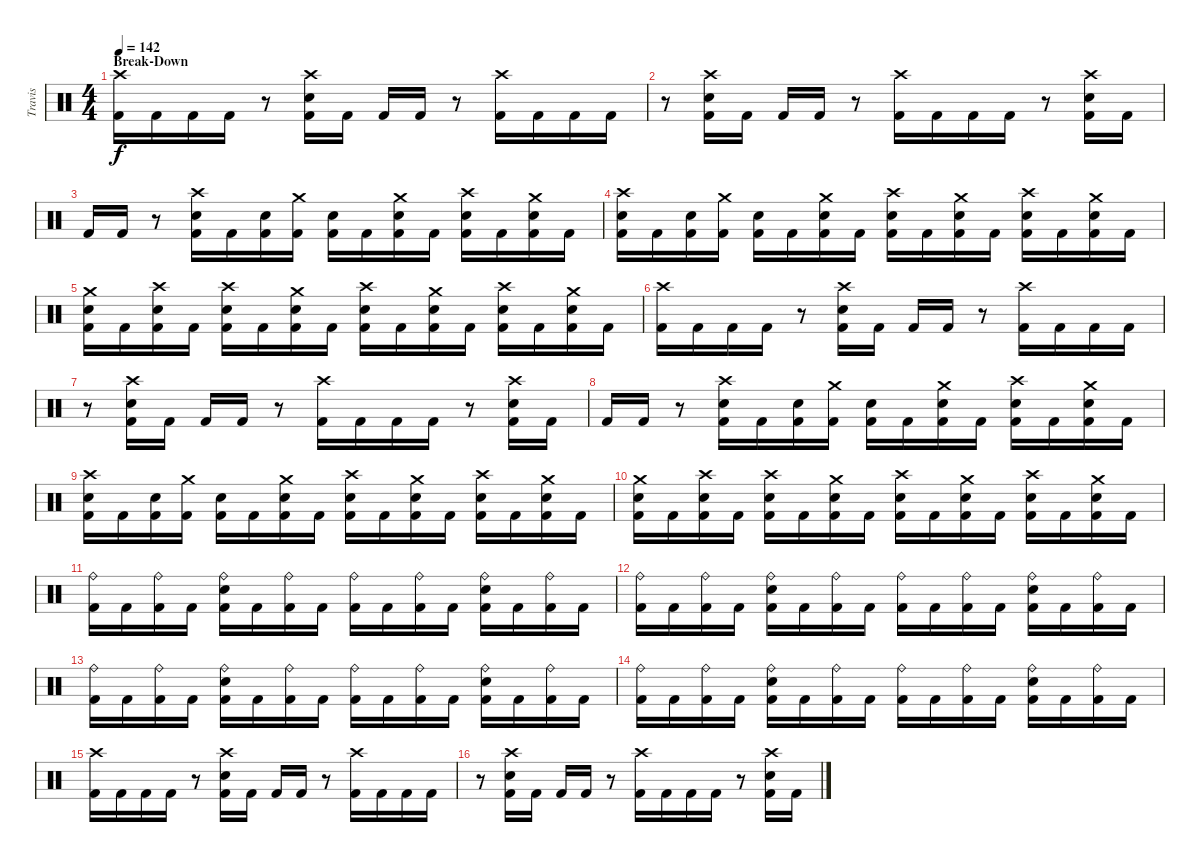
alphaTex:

\track ("Travis" "Travis") {instrument percussion}
\staff {score}
\articulation defaults
\ts (4 4)
\section ("" "Break-Down")
\tempo 142
\clef neutral
\ks c
("Crash high (hit)" "Kick (hit) 2").16{dy f} "Kick (hit) 2".16 "Kick (hit) 2".16 "Kick (hit) 2".16 r.8 ("Crash high (hit)" "Snare (hit) 2" "Kick (hit) 2").16 "Kick (hit) 2".16 "Kick (hit) 2".16 "Kick (hit) 2".16 r.8 ("Crash high (hit)" "Kick (hit) 2").16 "Kick (hit) 2".16 "Kick (hit) 2".16 "Kick (hit) 2".16 |
r.8 ("Crash high (hit)" "Snare (hit) 2" "Kick (hit) 2").16 "Kick (hit) 2".16 "Kick (hit) 2".16 "Kick (hit) 2".16 r.8 ("Crash high (hit)" "Kick (hit) 2").16 "Kick (hit) 2".16 "Kick (hit) 2".16 "Kick (hit) 2".16 r.8 ("Crash high (hit)" "Snare (hit) 2" "Kick (hit) 2").16 "Kick (hit) 2".16 |
"Kick (hit) 2".16 "Kick (hit) 2".16 r.8 ("Crash high (hit)" "Snare (hit) 2" "Kick (hit) 2").16 "Kick (hit) 2".16 ("Snare (hit) 2" "Kick (hit) 2").16 ("Crash medium (hit)" "Kick (hit) 2").16 ("Snare (hit) 2" "Kick (hit) 2").16 "Kick (hit) 2".16 ("Crash medium (hit)" "Snare (hit) 2" "Kick (hit) 2").16 "Kick (hit) 2".16 ("Crash high (hit)" "Snare (hit) 2" "Kick (hit) 2").16 "Kick (hit) 2".16 ("Crash medium (hit)" "Snare (hit) 2" "Kick (hit) 2").16 "Kick (hit) 2".16 |
("Crash high (hit)" "Snare (hit) 2" "Kick (hit) 2").16 "Kick (hit) 2".16 ("Snare (hit) 2" "Kick (hit) 2").16 ("Crash medium (hit)" "Kick (hit) 2").16 ("Snare (hit) 2" "Kick (hit) 2").16 "Kick (hit) 2".16 ("Crash medium (hit)" "Snare (hit) 2" "Kick (hit) 2").16 "Kick (hit) 2".16 ("Crash high (hit)" "Snare (hit) 2" "Kick (hit) 2").16 "Kick (hit) 2".16 ("Crash medium (hit)" "Snare (hit) 2" "Kick (hit) 2").16 "Kick (hit) 2".16 ("Crash high (hit)" "Snare (hit) 2" "Kick (hit) 2").16 "Kick (hit) 2".16 ("Crash medium (hit)" "Snare (hit) 2" "Kick (hit) 2").16 "Kick (hit) 2".16 |
("Crash medium (hit)" "Snare (hit) 2" "Kick (hit) 2").16 "Kick (hit) 2".16 ("Crash high (hit)" "Snare (hit) 2" "Kick (hit) 2").16 "Kick (hit) 2".16 ("Crash high (hit)" "Snare (hit) 2" "Kick (hit) 2").16 "Kick (hit) 2".16 ("Crash medium (hit)" "Snare (hit) 2" "Kick (hit) 2").16 "Kick (hit) 2".16 ("Crash high (hit)" "Snare (hit) 2" "Kick (hit) 2").16 "Kick (hit) 2".16 ("Crash medium (hit)" "Snare (hit) 2" "Kick (hit) 2").16 "Kick (hit) 2".16 ("Crash high (hit)" "Snare (hit) 2" "Kick (hit) 2").16 "Kick (hit) 2".16 ("Crash medium (hit)" "Snare (hit) 2" "Kick (hit) 2").16 "Kick (hit) 2".16 |
("Crash high (hit)" "Kick (hit) 2").16 "Kick (hit) 2".16 "Kick (hit) 2".16 "Kick (hit) 2".16 r.8 ("Crash high (hit)" "Snare (hit) 2" "Kick (hit) 2").16 "Kick (hit) 2".16 "Kick (hit) 2".16 "Kick (hit) 2".16 r.8 ("Crash high (hit)" "Kick (hit) 2").16 "Kick (hit) 2".16 "Kick (hit) 2".16 "Kick (hit) 2".16 |
r.8 ("Crash high (hit)" "Snare (hit) 2" "Kick (hit) 2").16 "Kick (hit) 2".16 "Kick (hit) 2".16 "Kick (hit) 2".16 r.8 ("Crash high (hit)" "Kick (hit) 2").16 "Kick (hit) 2".16 "Kick (hit) 2".16 "Kick (hit) 2".16 r.8 ("Crash high (hit)" "Snare (hit) 2" "Kick (hit) 2").16 "Kick (hit) 2".16 |
"Kick (hit) 2".16 "Kick (hit) 2".16 r.8 ("Crash high (hit)" "Snare (hit) 2" "Kick (hit) 2").16 "Kick (hit) 2".16 ("Snare (hit) 2" "Kick (hit) 2").16 ("Crash medium (hit)" "Kick (hit) 2").16 ("Snare (hit) 2" "Kick (hit) 2").16 "Kick (hit) 2".16 ("Crash medium (hit)" "Snare (hit) 2" "Kick (hit) 2").16 "Kick (hit) 2".16 ("Crash high (hit)" "Snare (hit) 2" "Kick (hit) 2").16 "Kick (hit) 2".16 ("Crash medium (hit)" "Snare (hit) 2" "Kick (hit) 2").16 "Kick (hit) 2".16 |
("Crash high (hit)" "Snare (hit) 2" "Kick (hit) 2").16 "Kick (hit) 2".16 ("Snare (hit) 2" "Kick (hit) 2").16 ("Crash medium (hit)" "Kick (hit) 2").16 ("Snare (hit) 2" "Kick (hit) 2").16 "Kick (hit) 2".16 ("Crash medium (hit)" "Snare (hit) 2" "Kick (hit) 2").16 "Kick (hit) 2".16 ("Crash high (hit)" "Snare (hit) 2" "Kick (hit) 2").16 "Kick (hit) 2".16 ("Crash medium (hit)" "Snare (hit) 2" "Kick (hit) 2").16 "Kick (hit) 2".16 ("Crash high (hit)" "Snare (hit) 2" "Kick (hit) 2").16 "Kick (hit) 2".16 ("Crash medium (hit)" "Snare (hit) 2" "Kick (hit) 2").16 "Kick (hit) 2".16 |
("Crash medium (hit)" "Snare (hit) 2" "Kick (hit) 2").16 "Kick (hit) 2".16 ("Crash high (hit)" "Snare (hit) 2" "Kick (hit) 2").16 "Kick (hit) 2".16 ("Crash high (hit)" "Snare (hit) 2" "Kick (hit) 2").16 "Kick (hit) 2".16 ("Crash medium (hit)" "Snare (hit) 2" "Kick (hit) 2").16 "Kick (hit) 2".16 ("Crash high (hit)" "Snare (hit) 2" "Kick (hit) 2").16 "Kick (hit) 2".16 ("Crash medium (hit)" "Snare (hit) 2" "Kick (hit) 2").16 "Kick (hit) 2".16 ("Crash high (hit)" "Snare (hit) 2" "Kick (hit) 2").16 "Kick (hit) 2".16 ("Crash medium (hit)" "Snare (hit) 2" "Kick (hit) 2").16 "Kick (hit) 2".16 |
("Ride (bell)" "Kick (hit) 2").16 "Kick (hit) 2".16 ("Ride (bell)" "Kick (hit) 2").16 "Kick (hit) 2".16 ("Ride (bell)" "Snare (hit) 2" "Kick (hit) 2").16 "Kick (hit) 2".16 ("Ride (bell)" "Kick (hit) 2").16 "Kick (hit) 2".16 ("Ride (bell)" "Kick (hit) 2").16 "Kick (hit) 2".16 ("Ride (bell)" "Kick (hit) 2").16 "Kick (hit) 2".16 ("Ride (bell)" "Snare (hit) 2" "Kick (hit) 2").16 "Kick (hit) 2".16 ("Ride (bell)" "Kick (hit) 2").16 "Kick (hit) 2".16 |
("Ride (bell)" "Kick (hit) 2").16 "Kick (hit) 2".16 ("Ride (bell)" "Kick (hit) 2").16 "Kick (hit) 2".16 ("Ride (bell)" "Snare (hit) 2" "Kick (hit) 2").16 "Kick (hit) 2".16 ("Ride (bell)" "Kick (hit) 2").16 "Kick (hit) 2".16 ("Ride (bell)" "Kick (hit) 2").16 "Kick (hit) 2".16 ("Ride (bell)" "Kick (hit) 2").16 "Kick (hit) 2".16 ("Ride (bell)" "Snare (hit) 2" "Kick (hit) 2").16 "Kick (hit) 2".16 ("Ride (bell)" "Kick (hit) 2").16 "Kick (hit) 2".16 |
("Ride (bell)" "Kick (hit) 2").16 "Kick (hit) 2".16 ("Ride (bell)" "Kick (hit) 2").16 "Kick (hit) 2".16 ("Ride (bell)" "Snare (hit) 2" "Kick (hit) 2").16 "Kick (hit) 2".16 ("Ride (bell)" "Kick (hit) 2").16 "Kick (hit) 2".16 ("Ride (bell)" "Kick (hit) 2").16 "Kick (hit) 2".16 ("Ride (bell)" "Kick (hit) 2").16 "Kick (hit) 2".16 ("Ride (bell)" "Snare (hit) 2" "Kick (hit) 2").16 "Kick (hit) 2".16 ("Ride (bell)" "Kick (hit) 2").16 "Kick (hit) 2".16 |
("Ride (bell)" "Kick (hit) 2").16 "Kick (hit) 2".16 ("Ride (bell)" "Kick (hit) 2").16 "Kick (hit) 2".16 ("Ride (bell)" "Snare (hit) 2" "Kick (hit) 2").16 "Kick (hit) 2".16 ("Ride (bell)" "Kick (hit) 2").16 "Kick (hit) 2".16 ("Ride (bell)" "Kick (hit) 2").16 "Kick (hit) 2".16 ("Ride (bell)" "Kick (hit) 2").16 "Kick (hit) 2".16 ("Ride (bell)" "Snare (hit) 2" "Kick (hit) 2").16 "Kick (hit) 2".16 ("Ride (bell)" "Kick (hit) 2").16 "Kick (hit) 2".16 |
("Crash high (hit)" "Kick (hit) 2").16 "Kick (hit) 2".16 "Kick (hit) 2".16 "Kick (hit) 2".16 r.8 ("Crash high (hit)" "Snare (hit) 2" "Kick (hit) 2").16 "Kick (hit) 2".16 "Kick (hit) 2".16 "Kick (hit) 2".16 r.8 ("Crash high (hit)" "Kick (hit) 2").16 "Kick (hit) 2".16 "Kick (hit) 2".16 "Kick (hit) 2".16 |
r.8 ("Crash high (hit)" "Snare (hit) 2" "Kick (hit) 2").16 "Kick (hit) 2".16 "Kick (hit) 2".16 "Kick (hit) 2".16 r.8 ("Crash high (hit)" "Kick (hit) 2").16 "Kick (hit) 2".16 "Kick (hit) 2".16 "Kick (hit) 2".16 r.8 ("Crash high (hit)" "Snare (hit) 2" "Kick (hit) 2").16 "Kick (hit) 2".16
